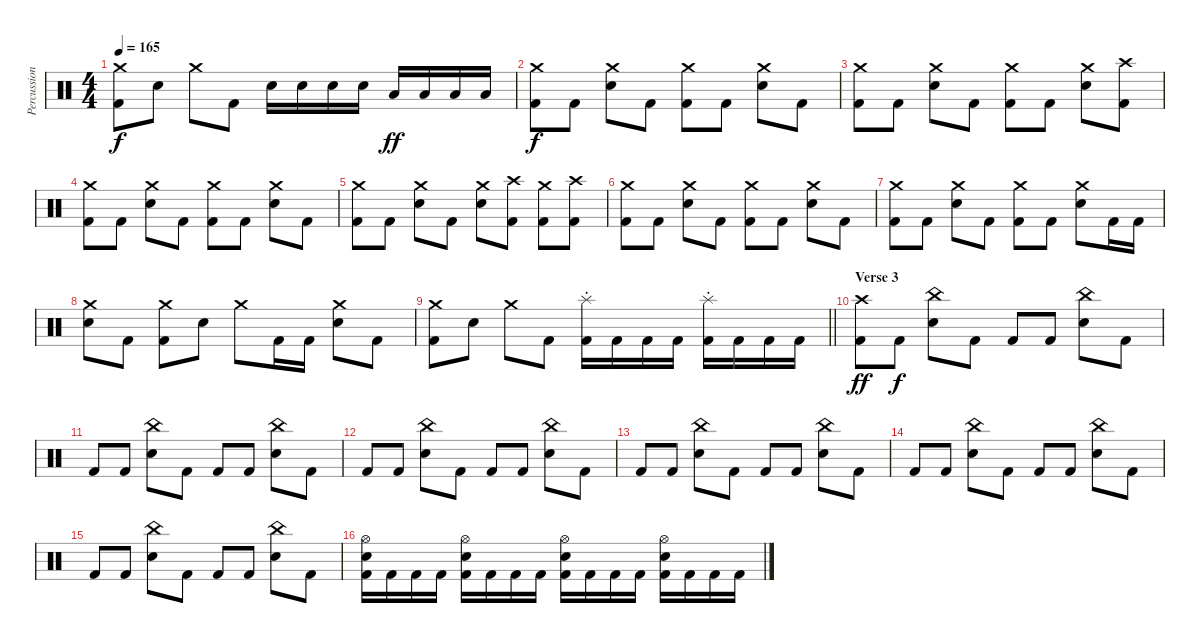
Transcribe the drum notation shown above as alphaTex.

\track ("Percussions" "Percussion") {instrument percussion}
\staff
\articulation defaults
\ts (4 4)
\tempo 165
\clef neutral
\ks c
("Crash medium (hit)" "Kick (hit) 2").8{dy f} "Electric Snare (hit)".8 "Crash medium (hit)".8 "Kick (hit) 2".8 "Electric Snare (hit)".16 "Electric Snare (hit)".16 "Electric Snare (hit)".16 "Electric Snare (hit)".16 "Low Tom (hit)".16{dy ff} "Low Tom (hit)".16 "Low Tom (hit)".16 "Low Tom (hit)".16 |
("Crash medium (hit)" "Kick (hit) 2").8{dy f} "Kick (hit) 2".8 ("Crash medium (hit)" "Electric Snare (hit)").8 "Kick (hit) 2".8 ("Crash medium (hit)" "Kick (hit) 2").8 "Kick (hit) 2".8 ("Crash medium (hit)" "Electric Snare (hit)").8 "Kick (hit) 2".8 |
("Crash medium (hit)" "Kick (hit) 2").8 "Kick (hit) 2".8 ("Crash medium (hit)" "Electric Snare (hit)").8 "Kick (hit) 2".8 ("Crash medium (hit)" "Kick (hit) 2").8 "Kick (hit) 2".8 ("Crash medium (hit)" "Electric Snare (hit)").8 ("Crash high (hit)" "Kick (hit) 2").8 |
("Crash medium (hit)" "Kick (hit) 2").8 "Kick (hit) 2".8 ("Crash medium (hit)" "Electric Snare (hit)").8 "Kick (hit) 2".8 ("Crash medium (hit)" "Kick (hit) 2").8 "Kick (hit) 2".8 ("Crash medium (hit)" "Electric Snare (hit)").8 "Kick (hit) 2".8 |
("Crash medium (hit)" "Kick (hit) 2").8 "Kick (hit) 2".8 ("Crash medium (hit)" "Electric Snare (hit)").8 "Kick (hit) 2".8 ("Crash medium (hit)" "Electric Snare (hit)").8 ("Crash high (hit)" "Kick (hit) 2").8 ("Crash medium (hit)" "Kick (hit) 2").8 ("Crash high (hit)" "Kick (hit) 2").8 |
("Crash medium (hit)" "Kick (hit) 2").8 "Kick (hit) 2".8 ("Crash medium (hit)" "Electric Snare (hit)").8 "Kick (hit) 2".8 ("Crash medium (hit)" "Kick (hit) 2").8 "Kick (hit) 2".8 ("Crash medium (hit)" "Electric Snare (hit)").8 "Kick (hit) 2".8 |
("Crash medium (hit)" "Kick (hit) 2").8 "Kick (hit) 2".8 ("Crash medium (hit)" "Electric Snare (hit)").8 "Kick (hit) 2".8 ("Crash medium (hit)" "Kick (hit) 2").8 "Kick (hit) 2".8 ("Crash medium (hit)" "Electric Snare (hit)").8 "Kick (hit) 2".16 "Kick (hit) 2".16 |
("Crash medium (hit)" "Electric Snare (hit)").8 "Kick (hit) 2".8 ("Crash medium (hit)" "Kick (hit) 2").8 "Electric Snare (hit)".8 "Crash medium (hit)".8 "Kick (hit) 2".16 "Kick (hit) 2".16 ("Crash medium (hit)" "Electric Snare (hit)").8 "Kick (hit) 2".8 |
\barLineRight lightlight
("Crash medium (hit)" "Kick (hit) 2").8 "Electric Snare (hit)".8 "Crash medium (hit)".8 "Kick (hit) 2".8 ("Splash (hit)"{st} "Kick (hit) 2").16 "Kick (hit) 2".16 "Kick (hit) 2".16 "Kick (hit) 2".16 ("Splash (hit)"{st} "Kick (hit) 2").16 "Kick (hit) 2".16 "Kick (hit) 2".16 "Kick (hit) 2".16 |
\section ("" "Verse 3")
("Crash high (hit)" "Kick (hit) 2").8{dy ff} "Kick (hit) 2".8{dy f} ("China (hit)" "Electric Snare (hit)").8 "Kick (hit) 2".8 "Kick (hit) 2".8 "Kick (hit) 2".8 ("China (hit)" "Electric Snare (hit)").8 "Kick (hit) 2".8 |
"Kick (hit) 2".8 "Kick (hit) 2".8 ("China (hit)" "Electric Snare (hit)").8 "Kick (hit) 2".8 "Kick (hit) 2".8 "Kick (hit) 2".8 ("China (hit)" "Electric Snare (hit)").8 "Kick (hit) 2".8 |
"Kick (hit) 2".8 "Kick (hit) 2".8 ("China (hit)" "Electric Snare (hit)").8 "Kick (hit) 2".8 "Kick (hit) 2".8 "Kick (hit) 2".8 ("China (hit)" "Electric Snare (hit)").8 "Kick (hit) 2".8 |
"Kick (hit) 2".8 "Kick (hit) 2".8 ("China (hit)" "Electric Snare (hit)").8 "Kick (hit) 2".8 "Kick (hit) 2".8 "Kick (hit) 2".8 ("China (hit)" "Electric Snare (hit)").8 "Kick (hit) 2".8 |
"Kick (hit) 2".8 "Kick (hit) 2".8 ("China (hit)" "Electric Snare (hit)").8 "Kick (hit) 2".8 "Kick (hit) 2".8 "Kick (hit) 2".8 ("China (hit)" "Electric Snare (hit)").8 "Kick (hit) 2".8 |
"Kick (hit) 2".8 "Kick (hit) 2".8 ("China (hit)" "Electric Snare (hit)").8 "Kick (hit) 2".8 "Kick (hit) 2".8 "Kick (hit) 2".8 ("China (hit)" "Electric Snare (hit)").8 "Kick (hit) 2".8 |
("Hi-Hat (open)" "Electric Snare (hit)" "Kick (hit) 2").16 "Kick (hit) 2".16 "Kick (hit) 2".16 "Kick (hit) 2".16 ("Hi-Hat (open)" "Electric Snare (hit)" "Kick (hit) 2").16 "Kick (hit) 2".16 "Kick (hit) 2".16 "Kick (hit) 2".16 ("Hi-Hat (open)" "Electric Snare (hit)" "Kick (hit) 2").16 "Kick (hit) 2".16 "Kick (hit) 2".16 "Kick (hit) 2".16 ("Hi-Hat (open)" "Electric Snare (hit)" "Kick (hit) 2").16 "Kick (hit) 2".16 "Kick (hit) 2".16 "Kick (hit) 2".16
